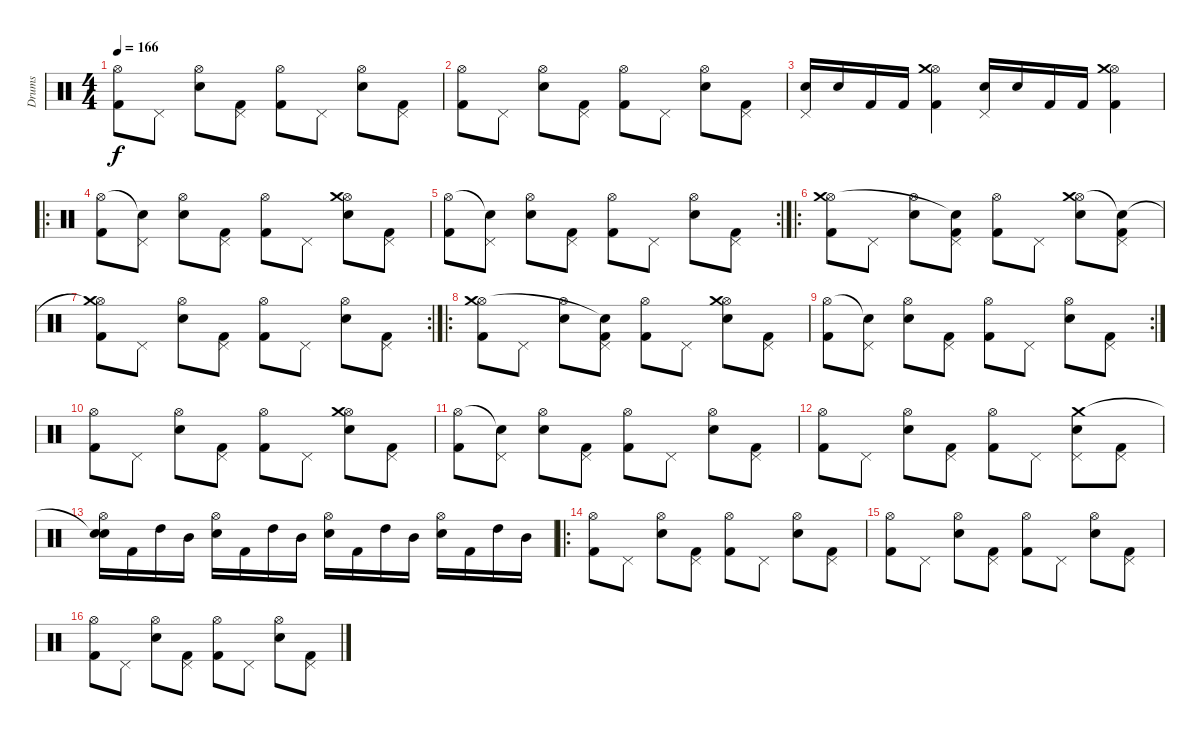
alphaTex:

\track ("Drums" "Drums") {instrument percussion}
\staff {score}
\articulation defaults
\ts (4 4)
\tempo 166
\clef neutral
\ks c
("Kick (hit) 2" "Hi-Hat (open)").8{dy f} "Pedal Hi-Hat (hit)".8 ("Snare (hit) 2" "Hi-Hat (open)").8 ("Kick (hit) 2" "Pedal Hi-Hat (hit)").8 ("Kick (hit) 2" "Hi-Hat (open)").8 "Pedal Hi-Hat (hit)".8 ("Snare (hit) 2" "Hi-Hat (open)").8 ("Kick (hit) 2" "Pedal Hi-Hat (hit)").8 |
("Kick (hit) 2" "Hi-Hat (open)").8 "Pedal Hi-Hat (hit)".8 ("Snare (hit) 2" "Hi-Hat (open)").8 ("Kick (hit) 2" "Pedal Hi-Hat (hit)").8 ("Kick (hit) 2" "Hi-Hat (open)").8 "Pedal Hi-Hat (hit)".8 ("Snare (hit) 2" "Hi-Hat (open)").8 ("Kick (hit) 2" "Pedal Hi-Hat (hit)").8 |
("Snare (hit) 2" "Pedal Hi-Hat (hit)").16 "Snare (hit) 2".16 "Kick (hit) 2".16 "Kick (hit) 2".16 ("Kick (hit) 2" "Hi-Hat (open)" "Crash medium (hit)").4 ("Snare (hit) 2" "Pedal Hi-Hat (hit)").16 "Snare (hit) 2".16 "Kick (hit) 2".16 "Kick (hit) 2".16 ("Kick (hit) 2" "Hi-Hat (open)" "Crash medium (hit)").4 |
\ro
("Kick (hit) 2" "Hi-Hat (open)").8 ("Pedal Hi-Hat (hit)" "Snare (hit)"{t}).8 ("Snare (hit) 2" "Hi-Hat (open)").8 ("Kick (hit) 2" "Pedal Hi-Hat (hit)").8 ("Kick (hit) 2" "Hi-Hat (open)").8 "Pedal Hi-Hat (hit)".8 ("Snare (hit) 2" "Hi-Hat (open)" "Crash medium (hit)").8 ("Kick (hit) 2" "Pedal Hi-Hat (hit)").8 |
\rc 2
("Kick (hit) 2" "Hi-Hat (open)").8 ("Pedal Hi-Hat (hit)" "Snare (hit)"{t}).8 ("Snare (hit) 2" "Hi-Hat (open)").8 ("Kick (hit) 2" "Pedal Hi-Hat (hit)").8 ("Kick (hit) 2" "Hi-Hat (open)").8 "Pedal Hi-Hat (hit)".8 ("Snare (hit) 2" "Hi-Hat (open)").8 ("Kick (hit) 2" "Pedal Hi-Hat (hit)").8 |
\ro
("Kick (hit) 2" "Hi-Hat (open)" "Crash medium (hit)").8 "Pedal Hi-Hat (hit)".8 ("Snare (hit) 2" "Hi-Hat (open)").8 ("Kick (hit) 2" "Pedal Hi-Hat (hit)" "Snare (hit)"{t}).8 ("Kick (hit) 2" "Hi-Hat (open)").8 "Pedal Hi-Hat (hit)".8 ("Snare (hit) 2" "Hi-Hat (open)" "Crash medium (hit)").8 ("Kick (hit) 2" "Pedal Hi-Hat (hit)" "Snare (hit)"{t}).8 |
\rc 2
("Kick (hit) 2" "Hi-Hat (open)" "Crash medium (hit)"{t}).8 "Pedal Hi-Hat (hit)".8 ("Snare (hit) 2" "Hi-Hat (open)").8 ("Kick (hit) 2" "Pedal Hi-Hat (hit)").8 ("Kick (hit) 2" "Hi-Hat (open)").8 "Pedal Hi-Hat (hit)".8 ("Snare (hit) 2" "Hi-Hat (open)").8 ("Kick (hit) 2" "Pedal Hi-Hat (hit)").8 |
\ro
("Kick (hit) 2" "Hi-Hat (open)" "Crash medium (hit)").8 "Pedal Hi-Hat (hit)".8 ("Snare (hit) 2" "Hi-Hat (open)").8 ("Kick (hit) 2" "Pedal Hi-Hat (hit)" "Snare (hit)"{t}).8 ("Kick (hit) 2" "Hi-Hat (open)").8 "Pedal Hi-Hat (hit)".8 ("Snare (hit) 2" "Hi-Hat (open)" "Crash medium (hit)").8 ("Kick (hit) 2" "Pedal Hi-Hat (hit)").8 |
\rc 2
("Kick (hit) 2" "Hi-Hat (open)").8 ("Pedal Hi-Hat (hit)" "Snare (hit)"{t}).8 ("Snare (hit) 2" "Hi-Hat (open)").8 ("Kick (hit) 2" "Pedal Hi-Hat (hit)").8 ("Kick (hit) 2" "Hi-Hat (open)").8 "Pedal Hi-Hat (hit)".8 ("Snare (hit) 2" "Hi-Hat (open)").8 ("Kick (hit) 2" "Pedal Hi-Hat (hit)").8 |
("Kick (hit) 2" "Hi-Hat (open)").8 "Pedal Hi-Hat (hit)".8 ("Snare (hit) 2" "Hi-Hat (open)").8 ("Kick (hit) 2" "Pedal Hi-Hat (hit)").8 ("Kick (hit) 2" "Hi-Hat (open)").8 "Pedal Hi-Hat (hit)".8 ("Snare (hit) 2" "Hi-Hat (open)" "Crash medium (hit)").8 ("Kick (hit) 2" "Pedal Hi-Hat (hit)").8 |
("Kick (hit) 2" "Hi-Hat (open)").8 ("Pedal Hi-Hat (hit)" "Snare (hit)"{t}).8 ("Snare (hit) 2" "Hi-Hat (open)").8 ("Kick (hit) 2" "Pedal Hi-Hat (hit)").8 ("Kick (hit) 2" "Hi-Hat (open)").8 "Pedal Hi-Hat (hit)".8 ("Snare (hit) 2" "Hi-Hat (open)").8 ("Kick (hit) 2" "Pedal Hi-Hat (hit)").8 |
("Kick (hit) 2" "Hi-Hat (open)").8 "Pedal Hi-Hat (hit)".8 ("Snare (hit) 2" "Hi-Hat (open)").8 ("Kick (hit) 2" "Pedal Hi-Hat (hit)").8 ("Kick (hit) 2" "Hi-Hat (open)").8 "Pedal Hi-Hat (hit)".8 ("Snare (hit) 2" "Pedal Hi-Hat (hit)" "Crash medium (hit)").8 ("Kick (hit) 2" "Pedal Hi-Hat (hit)").8 |
("Snare (hit) 2" "Hi-Hat (open)" "Snare (hit)"{t}).16 "Kick (hit) 2".16 "High Tom (hit)".16 "Mid Tom (hit)".16 ("Snare (hit) 2" "Hi-Hat (open)").16 "Kick (hit) 2".16 "High Tom (hit)".16 "Mid Tom (hit)".16 ("Snare (hit) 2" "Hi-Hat (open)").16 "Kick (hit) 2".16 "High Tom (hit)".16 "Mid Tom (hit)".16 ("Snare (hit) 2" "Hi-Hat (open)").16 "Kick (hit) 2".16 "High Tom (hit)".16 "Mid Tom (hit)".16 |
\ro
("Kick (hit) 2" "Hi-Hat (open)").8 "Pedal Hi-Hat (hit)".8 ("Snare (hit) 2" "Hi-Hat (open)").8 ("Kick (hit) 2" "Pedal Hi-Hat (hit)").8 ("Kick (hit) 2" "Hi-Hat (open)").8 "Pedal Hi-Hat (hit)".8 ("Snare (hit) 2" "Hi-Hat (open)").8 ("Kick (hit) 2" "Pedal Hi-Hat (hit)").8 |
("Kick (hit) 2" "Hi-Hat (open)").8 "Pedal Hi-Hat (hit)".8 ("Snare (hit) 2" "Hi-Hat (open)").8 ("Kick (hit) 2" "Pedal Hi-Hat (hit)").8 ("Kick (hit) 2" "Hi-Hat (open)").8 "Pedal Hi-Hat (hit)".8 ("Snare (hit) 2" "Hi-Hat (open)").8 ("Kick (hit) 2" "Pedal Hi-Hat (hit)").8 |
("Kick (hit) 2" "Hi-Hat (open)").8 "Pedal Hi-Hat (hit)".8 ("Snare (hit) 2" "Hi-Hat (open)").8 ("Kick (hit) 2" "Pedal Hi-Hat (hit)").8 ("Kick (hit) 2" "Hi-Hat (open)").8 "Pedal Hi-Hat (hit)".8 ("Snare (hit) 2" "Hi-Hat (open)").8 ("Kick (hit) 2" "Pedal Hi-Hat (hit)").8
